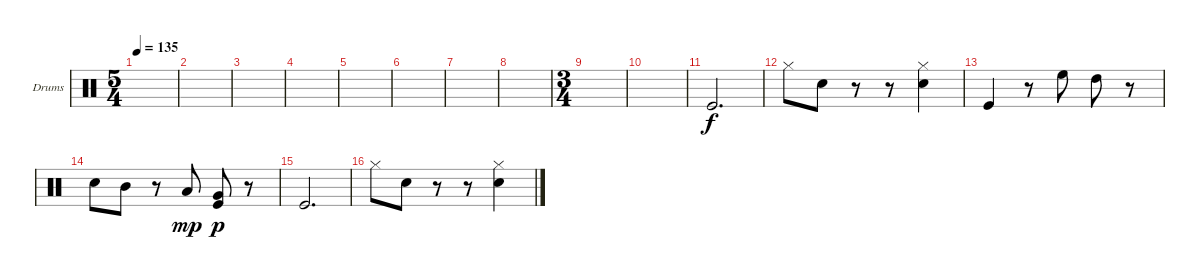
\bracketExtendMode groupsimilarinstruments
\firstSystemTrackNameOrientation horizontal
\otherSystemsTrackNameOrientation horizontal
\track ("Drumkit" "Drums") {instrument percussion}
\staff {score}
\articulation defaults
\ts (5 4)
\tempo 135
\clef neutral
\ks c
|
|
|
|
|
|
|
|
\ts (3 4)
|
|
"Kick (hit)".2{d} |
"Hi-Hat (closed)".8 "Snare (hit) 2".8 r.8 r.8 ("Hi-Hat (closed)" "Snare (hit) 2").4 |
"Kick (hit)".4 r.8 "High Floor Tom (hit)".8 "High Tom (hit)".8 r.8 |
"Snare (hit) 2".8 "Mid Tom (hit)".8 r.8 "Low Tom (hit)".8{dy mp} ("Very Low Tom (hit)" "Kick (hit)").8{dy p} r.8 |
"Kick (hit)".2{d} |
"Hi-Hat (closed)".8 "Snare (hit) 2".8 r.8 r.8 ("Hi-Hat (closed)" "Snare (hit) 2").4
